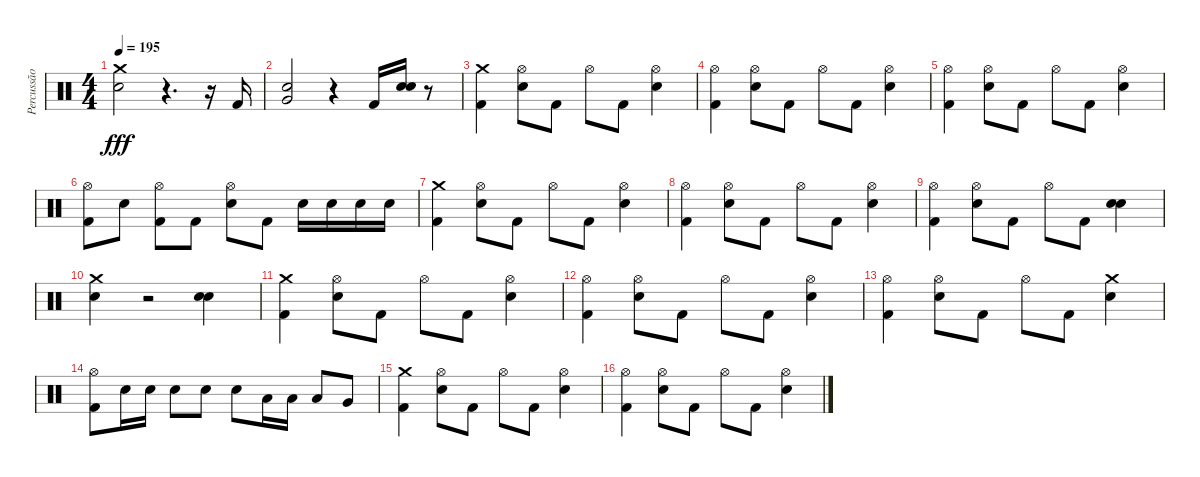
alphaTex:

\track ("Percussão" "Percussão") {instrument percussion}
\staff {score}
\articulation defaults
\ts (4 4)
\tempo 195
\clef neutral
\ks c
("Crash medium (hit)" "Electric Snare (hit)").2{dy fff} r.4{d} r.16 "Kick (hit) 2".16 |
("Very Low Tom (hit)" "Electric Snare (hit)").2{bd 240} r.4 "Kick (hit) 2".16 ("Electric Snare (hit)" "Electric Snare (hit)").16{bd 240} r.8 |
("Crash medium (hit)" "Kick (hit) 2").4 ("Hi-Hat (open)" "Electric Snare (hit)").8 "Kick (hit) 2".8 "Hi-Hat (open)".8 "Kick (hit) 2".8 ("Hi-Hat (open)" "Electric Snare (hit)").4 |
("Hi-Hat (open)" "Kick (hit) 2").4 ("Hi-Hat (open)" "Electric Snare (hit)").8 "Kick (hit) 2".8 "Hi-Hat (open)".8 "Kick (hit) 2".8 ("Hi-Hat (open)" "Electric Snare (hit)").4 |
("Hi-Hat (open)" "Kick (hit) 2").4 ("Hi-Hat (open)" "Electric Snare (hit)").8 "Kick (hit) 2".8 "Hi-Hat (open)".8 "Kick (hit) 2".8 ("Hi-Hat (open)" "Electric Snare (hit)").4 |
("Hi-Hat (open)" "Kick (hit) 2").8 "Electric Snare (hit)".8 ("Hi-Hat (open)" "Kick (hit) 2").8 "Kick (hit) 2".8 ("Hi-Hat (open)" "Electric Snare (hit)").8 "Kick (hit) 2".8 "Electric Snare (hit)".16 "Electric Snare (hit)".16 "Electric Snare (hit)".16 "Electric Snare (hit)".16 |
("Crash medium (hit)" "Kick (hit) 2").4 ("Hi-Hat (open)" "Electric Snare (hit)").8 "Kick (hit) 2".8 "Hi-Hat (open)".8 "Kick (hit) 2".8 ("Hi-Hat (open)" "Electric Snare (hit)").4 |
("Hi-Hat (open)" "Kick (hit) 2").4 ("Hi-Hat (open)" "Electric Snare (hit)").8 "Kick (hit) 2".8 "Hi-Hat (open)".8 "Kick (hit) 2".8 ("Hi-Hat (open)" "Electric Snare (hit)").4 |
("Hi-Hat (open)" "Kick (hit) 2").4 ("Hi-Hat (open)" "Electric Snare (hit)").8 "Kick (hit) 2".8 "Hi-Hat (open)".8 "Kick (hit) 2".8 ("Electric Snare (hit)" "Electric Snare (hit)").4{bd 240} |
("Crash medium (hit)" "Electric Snare (hit)").4 r.2 ("Electric Snare (hit)" "Electric Snare (hit)").4{bd 240} |
("Crash medium (hit)" "Kick (hit) 2").4 ("Hi-Hat (open)" "Electric Snare (hit)").8 "Kick (hit) 2".8 "Hi-Hat (open)".8 "Kick (hit) 2".8 ("Hi-Hat (open)" "Electric Snare (hit)").4 |
("Hi-Hat (open)" "Kick (hit) 2").4 ("Hi-Hat (open)" "Electric Snare (hit)").8 "Kick (hit) 2".8 "Hi-Hat (open)".8 "Kick (hit) 2".8 ("Hi-Hat (open)" "Electric Snare (hit)").4 |
("Hi-Hat (open)" "Kick (hit) 2").4 ("Hi-Hat (open)" "Electric Snare (hit)").8 "Kick (hit) 2".8 "Hi-Hat (open)".8 "Kick (hit) 2".8 ("Crash medium (hit)" "Electric Snare (hit)").4 |
("Hi-Hat (open)" "Kick (hit) 2").8 "Electric Snare (hit)".16 "Electric Snare (hit)".16 "Electric Snare (hit)".8 "Electric Snare (hit)".8 "Electric Snare (hit)".8 "Low Tom (hit)".16 "Low Tom (hit)".16 "Low Tom (hit)".8 "Very Low Tom (hit)".8 |
("Crash medium (hit)" "Kick (hit) 2").4 ("Hi-Hat (open)" "Electric Snare (hit)").8 "Kick (hit) 2".8 "Hi-Hat (open)".8 "Kick (hit) 2".8 ("Hi-Hat (open)" "Electric Snare (hit)").4 |
("Hi-Hat (open)" "Kick (hit) 2").4 ("Hi-Hat (open)" "Electric Snare (hit)").8 "Kick (hit) 2".8 "Hi-Hat (open)".8 "Kick (hit) 2".8 ("Hi-Hat (open)" "Electric Snare (hit)").4
